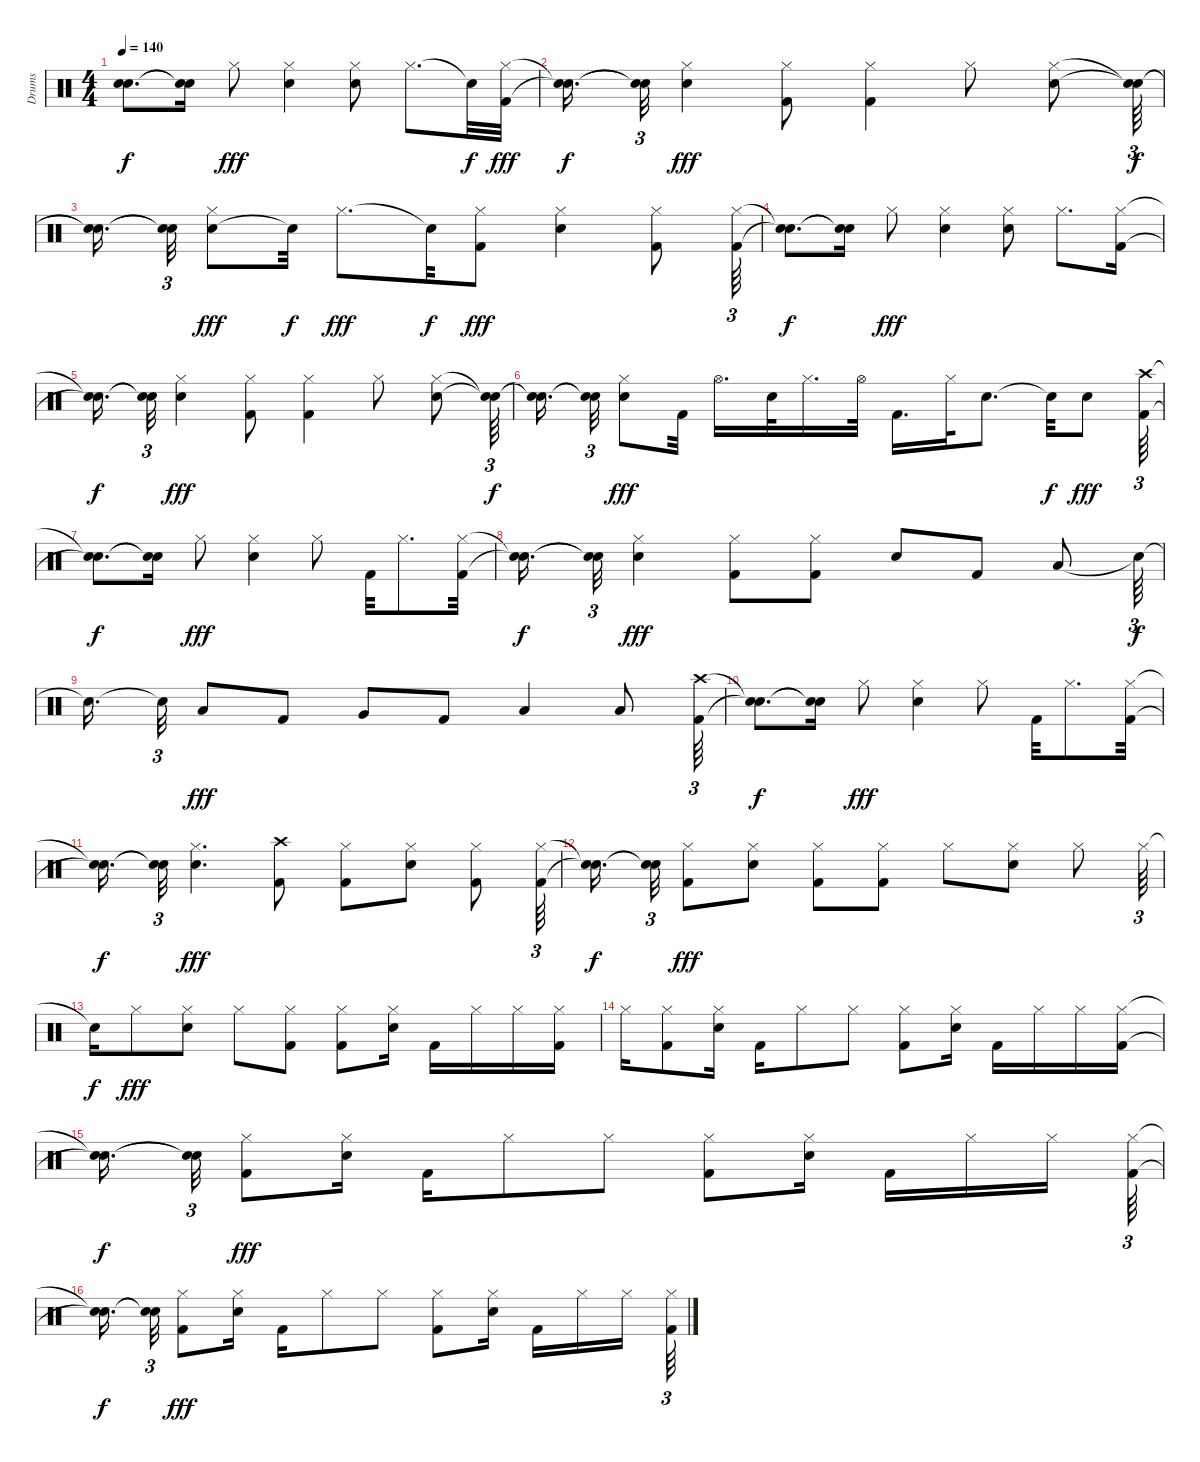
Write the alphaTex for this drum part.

\track ("Drums" "Drums") {instrument percussion}
\staff {score}
\articulation defaults
\ts (4 4)
\tempo 140
\clef neutral
\ks c
("Snare (hit)"{t} "Snare (hit)"{t}).8{d dy f} ("Snare (hit)"{t} "Snare (hit)"{t}).16 "Hi-Hat (closed)".8{dy fff} ("Snare (hit) 2" "Hi-Hat (closed)").4 ("Snare (hit) 2" "Hi-Hat (closed)").8 "Hi-Hat (closed)".8{d} "Snare (hit)"{t}.32{dy f} ("Hi-Hat (closed)" "Kick (hit) 2").32{dy fff} |
("Snare (hit)"{t} "Snare (hit)"{t}).16{d dy f} ("Snare (hit)"{t} "Snare (hit)"{t}).32{tu (3 2)} ("Electric Snare (hit)" "Hi-Hat (closed)").4{dy fff} ("Hi-Hat (closed)" "Kick (hit) 2").8 ("Hi-Hat (closed)" "Kick (hit) 2").4 "Hi-Hat (closed)".8 ("Snare (hit) 2" "Hi-Hat (closed)").8 ("Snare (hit)"{t} "Snare (hit)"{t}).64{tu (3 2) dy f} |
("Snare (hit)"{t} "Snare (hit)"{t}).16{d} ("Snare (hit)"{t} "Snare (hit)"{t}).32{tu (3 2)} ("Snare (hit) 2" "Hi-Hat (closed)").8{dy fff} "Snare (hit)"{t}.32{dy f} "Hi-Hat (closed)".8{d dy fff} "Snare (hit)"{t}.32{dy f} ("Hi-Hat (closed)" "Kick (hit) 2").8{dy fff} ("Electric Snare (hit)" "Hi-Hat (closed)").4 ("Hi-Hat (closed)" "Kick (hit) 2").8 ("Kick (hit) 2" "Hi-Hat (closed)").64{tu (3 2)} |
("Snare (hit)"{t} "Snare (hit)"{t}).8{d dy f} ("Snare (hit)"{t} "Snare (hit)"{t}).16 "Hi-Hat (closed)".8{dy fff} ("Snare (hit) 2" "Hi-Hat (closed)").4 ("Snare (hit) 2" "Hi-Hat (closed)").8 "Hi-Hat (closed)".8{d} ("Hi-Hat (closed)" "Kick (hit) 2").16 |
("Snare (hit)"{t} "Snare (hit)"{t}).16{d dy f} ("Snare (hit)"{t} "Snare (hit)"{t}).32{tu (3 2)} ("Electric Snare (hit)" "Hi-Hat (closed)").4{dy fff} ("Hi-Hat (closed)" "Kick (hit) 2").8 ("Kick (hit) 2" "Hi-Hat (closed)").4 "Hi-Hat (closed)".8 ("Snare (hit) 2" "Hi-Hat (closed)").8 ("Snare (hit)"{t} "Snare (hit)"{t}).64{tu (3 2) dy f} |
("Snare (hit)"{t} "Snare (hit)"{t}).16{d} ("Snare (hit)"{t} "Snare (hit)"{t}).32{tu (3 2)} ("Snare (hit) 2" "Hi-Hat (closed)").8{dy fff} "Kick (hit) 2".32 "Hi-Hat (open)".16{d} "Electric Snare (hit)".32 "Hi-Hat (closed)".16{d} "Hi-Hat (open)".32 "Kick (hit) 2".16{d} "Hi-Hat (closed)".32 "Snare (hit) 2".8{d} "Snare (hit)"{t}.32{dy f} "Snare (hit) 2".8{dy fff} ("Crash high (hit)" "Kick (hit) 2").64{tu (3 2)} |
("Snare (hit)"{t} "Snare (hit)"{t}).8{d dy f} ("Snare (hit)"{t} "Snare (hit)"{t}).16 "Hi-Hat (closed)".8{dy fff} ("Snare (hit) 2" "Hi-Hat (closed)").4 "Hi-Hat (closed)".8 "Kick (hit) 2".32 "Hi-Hat (closed)".8{d} ("Hi-Hat (closed)" "Kick (hit) 2").32 |
("Snare (hit)"{t} "Snare (hit)"{t}).16{d dy f} ("Snare (hit)"{t} "Snare (hit)"{t}).32{tu (3 2)} ("Electric Snare (hit)" "Hi-Hat (closed)").4{dy fff} ("Hi-Hat (closed)" "Kick (hit) 2").8 ("Hi-Hat (closed)" "Kick (hit) 2").8 "Electric Snare (hit)".8 "Kick (hit) 2".8 "Low Tom (hit)".8 "Snare (hit)"{t}.64{tu (3 2) dy f} |
"Snare (hit)"{t}.16{d} "Snare (hit)"{t}.32{tu (3 2)} "Low Tom (hit)".8{dy fff} "Kick (hit) 2".8 "Very Low Tom (hit)".8 "Kick (hit) 2".8 "Low Floor Tom (hit)".4 "Low Floor Tom (hit)".8 ("Crash high (hit)" "Kick (hit) 2").64{tu (3 2)} |
("Snare (hit)"{t} "Snare (hit)"{t}).8{d dy f} ("Snare (hit)"{t} "Snare (hit)"{t}).16 "Hi-Hat (closed)".8{dy fff} ("Snare (hit) 2" "Hi-Hat (closed)").4 "Hi-Hat (closed)".8 "Kick (hit) 2".32 "Hi-Hat (closed)".8{d} ("Hi-Hat (closed)" "Kick (hit) 2").32 |
("Snare (hit)"{t} "Snare (hit)"{t}).16{d dy f} ("Snare (hit)"{t} "Snare (hit)"{t}).32{tu (3 2)} ("Electric Snare (hit)" "Hi-Hat (closed)").4{d dy fff} ("Crash high (hit)" "Kick (hit) 2").8 ("Kick (hit) 2" "Hi-Hat (closed)").8 ("Hi-Hat (closed)" "Snare (hit) 2").8 ("Kick (hit) 2" "Hi-Hat (closed)").8 ("Kick (hit) 2" "Hi-Hat (closed)").64{tu (3 2)} |
("Snare (hit)"{t} "Snare (hit)"{t}).16{d dy f} ("Snare (hit)"{t} "Snare (hit)"{t}).32{tu (3 2)} ("Kick (hit) 2" "Hi-Hat (closed)").8{dy fff} ("Hi-Hat (closed)" "Electric Snare (hit)").8 ("Kick (hit) 2" "Hi-Hat (closed)").8 ("Kick (hit) 2" "Hi-Hat (closed)").8 "Hi-Hat (closed)".8 ("Hi-Hat (closed)" "Snare (hit) 2").8 "Hi-Hat (closed)".8 "Hi-Hat (closed)".64{tu (3 2)} |
"Snare (hit)"{t}.16{dy f} "Hi-Hat (closed)".8{dy fff} ("Hi-Hat (closed)" "Snare (hit) 2").8 "Hi-Hat (closed)".8 ("Hi-Hat (closed)" "Kick (hit) 2").8 ("Hi-Hat (closed)" "Kick (hit) 2").8 ("Snare (hit) 2" "Hi-Hat (closed)").16 "Kick (hit) 2".16 "Hi-Hat (closed)".16 "Hi-Hat (closed)".16 ("Kick (hit) 2" "Hi-Hat (closed)").16 |
"Hi-Hat (closed)".16 ("Kick (hit) 2" "Hi-Hat (closed)").8 ("Hi-Hat (closed)" "Snare (hit) 2").16 "Kick (hit) 2".16 "Hi-Hat (closed)".8 "Hi-Hat (closed)".8 ("Kick (hit) 2" "Hi-Hat (closed)").8 ("Snare (hit) 2" "Hi-Hat (closed)").16 "Kick (hit) 2".16 "Hi-Hat (closed)".16 "Hi-Hat (closed)".16 ("Kick (hit) 2" "Hi-Hat (closed)").16 |
("Snare (hit)"{t} "Snare (hit)"{t}).16{d dy f} ("Snare (hit)"{t} "Snare (hit)"{t}).32{tu (3 2)} ("Kick (hit) 2" "Hi-Hat (closed)").8{dy fff} ("Hi-Hat (closed)" "Snare (hit) 2").16 "Kick (hit) 2".16 "Hi-Hat (closed)".8 "Hi-Hat (closed)".8 ("Hi-Hat (closed)" "Kick (hit) 2").8 ("Hi-Hat (closed)" "Snare (hit) 2").16 "Kick (hit) 2".16 "Hi-Hat (closed)".16 "Hi-Hat (closed)".16 ("Kick (hit) 2" "Hi-Hat (closed)").64{tu (3 2)} |
("Snare (hit)"{t} "Snare (hit)"{t}).16{d dy f} ("Snare (hit)"{t} "Snare (hit)"{t}).32{tu (3 2)} ("Kick (hit) 2" "Hi-Hat (closed)").8{dy fff} ("Snare (hit) 2" "Hi-Hat (closed)").16 "Kick (hit) 2".16 "Hi-Hat (closed)".8 "Hi-Hat (closed)".8 ("Hi-Hat (closed)" "Kick (hit) 2").8 ("Hi-Hat (closed)" "Snare (hit) 2").16 "Kick (hit) 2".16 "Hi-Hat (closed)".16 "Hi-Hat (closed)".16 ("Kick (hit) 2" "Hi-Hat (closed)").64{tu (3 2)}
